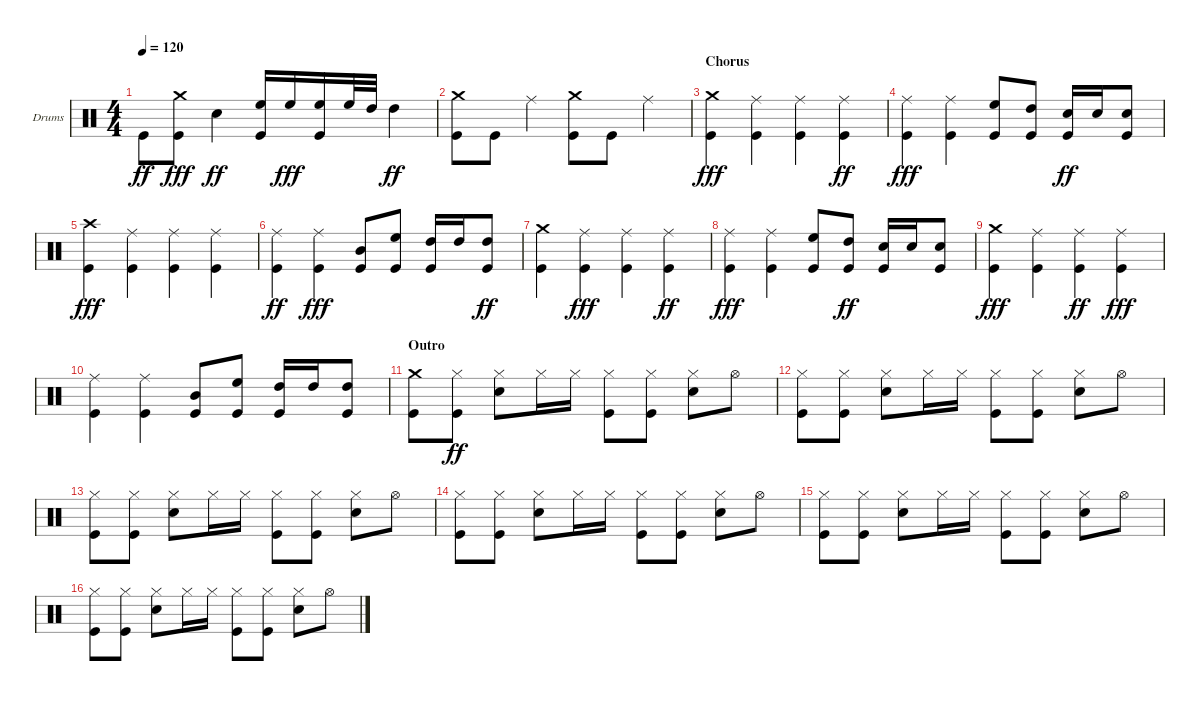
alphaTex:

\defaultSystemsLayout 4
\bracketExtendMode groupsimilarinstruments
\firstSystemTrackNameOrientation horizontal
\otherSystemsTrackNameOrientation horizontal
\track ("Drumkit" "Drums") {instrument percussion}
\staff {score}
\articulation defaults
\ts (4 4)
\tempo 120
\clef neutral
\ks c "Kick (hit)".8{dy ff}
("Crash medium (hit)" "Kick (hit)").8{dy fff} "Snare (hit) 2".4{dy ff} ("High Floor Tom (hit)" "Kick (hit)").16 "High Floor Tom (hit)".16{dy fff} ("High Floor Tom (hit)" "Kick (hit)").16 "High Floor Tom (hit)".32 "High Tom (hit)".32 "High Tom (hit)".4{dy ff} |
("Kick (hit)" "Crash medium (hit)").8 "Kick (hit)".8 "Ride (middle)".4 ("Kick (hit)" "Crash medium (hit)").8 "Kick (hit)".8 "Ride (middle)".4 |
\section ("" "Chorus")
("Crash medium (hit)" "Kick (hit)").4{dy fff} ("Ride (middle)" "Kick (hit)").4 ("Ride (middle)" "Kick (hit)").4 ("Kick (hit)" "Ride (middle)").4{dy ff} |
("Ride (middle)" "Kick (hit)").4{dy fff} ("Ride (middle)" "Kick (hit)").4 ("High Floor Tom (hit)" "Kick (hit)").8 ("High Tom (hit)" "Kick (hit)").8 ("Snare (hit) 2" "Kick (hit)").16{dy ff} "Snare (hit) 2".16 ("Snare (hit) 2" "Kick (hit)").8 |
("Crash high (hit)" "Kick (hit)").4{dy fff} ("Ride (middle)" "Kick (hit)").4 ("Ride (middle)" "Kick (hit)").4 ("Ride (middle)" "Kick (hit)").4 |
("Kick (hit)" "Ride (middle)").4{dy ff} ("Ride (middle)" "Kick (hit)").4{dy fff} ("Mid Tom (hit)" "Kick (hit)").8 ("High Floor Tom (hit)" "Kick (hit)").8 ("High Tom (hit)" "Kick (hit)").16 "High Tom (hit)".16 ("Kick (hit)" "High Tom (hit)").8{dy ff} |
("Kick (hit)" "Crash medium (hit)").4 ("Ride (middle)" "Kick (hit)").4{dy fff} ("Ride (middle)" "Kick (hit)").4 ("Kick (hit)" "Ride (middle)").4{dy ff} |
("Ride (middle)" "Kick (hit)").4{dy fff} ("Ride (middle)" "Kick (hit)").4 ("High Floor Tom (hit)" "Kick (hit)").8 ("Kick (hit)" "High Tom (hit)").8{dy ff} ("Snare (hit) 2" "Kick (hit)").16 "Snare (hit) 2".16 ("Kick (hit)" "Snare (hit) 2").8 |
("Crash medium (hit)" "Kick (hit)").4{dy fff} ("Ride (middle)" "Kick (hit)").4 ("Kick (hit)" "Ride (middle)").4{dy ff} ("Ride (middle)" "Kick (hit)").4{dy fff} |
("Ride (middle)" "Kick (hit)").4 ("Ride (middle)" "Kick (hit)").4 ("Mid Tom (hit)" "Kick (hit)").8 ("High Floor Tom (hit)" "Kick (hit)").8 ("High Tom (hit)" "Kick (hit)").16 "High Tom (hit)".16 ("High Tom (hit)" "Kick (hit)").8 |
\section ("" "Outro")
("Crash medium (hit)" "Kick (hit)").8 ("Kick (hit)" "Hi-Hat (closed)").8{dy ff} ("Hi-Hat (closed)" "Snare (hit) 2").8 "Hi-Hat (closed)".16 "Hi-Hat (closed)".16 ("Kick (hit)" "Hi-Hat (closed)").8 ("Kick (hit)" "Hi-Hat (closed)").8 ("Hi-Hat (closed)" "Snare (hit) 2").8 "Hi-Hat (open)".8 |
("Kick (hit)" "Hi-Hat (closed)").8 ("Kick (hit)" "Hi-Hat (closed)").8 ("Hi-Hat (closed)" "Snare (hit) 2").8 "Hi-Hat (closed)".16 "Hi-Hat (closed)".16 ("Hi-Hat (closed)" "Kick (hit)").8 ("Kick (hit)" "Hi-Hat (closed)").8 ("Snare (hit) 2" "Hi-Hat (closed)").8 "Hi-Hat (open)".8 |
("Hi-Hat (closed)" "Kick (hit)").8 ("Hi-Hat (closed)" "Kick (hit)").8 ("Hi-Hat (closed)" "Snare (hit) 2").8 "Hi-Hat (closed)".16 "Hi-Hat (closed)".16 ("Hi-Hat (closed)" "Kick (hit)").8 ("Hi-Hat (closed)" "Kick (hit)").8 ("Hi-Hat (closed)" "Snare (hit) 2").8 "Hi-Hat (open)".8 |
("Hi-Hat (closed)" "Kick (hit)").8 ("Hi-Hat (closed)" "Kick (hit)").8 ("Hi-Hat (closed)" "Snare (hit) 2").8 "Hi-Hat (closed)".16 "Hi-Hat (closed)".16 ("Hi-Hat (closed)" "Kick (hit)").8 ("Kick (hit)" "Hi-Hat (closed)").8 ("Snare (hit) 2" "Hi-Hat (closed)").8 "Hi-Hat (open)".8 |
("Hi-Hat (closed)" "Kick (hit)").8 ("Hi-Hat (closed)" "Kick (hit)").8 ("Hi-Hat (closed)" "Snare (hit) 2").8 "Hi-Hat (closed)".16 "Hi-Hat (closed)".16 ("Kick (hit)" "Hi-Hat (closed)").8 ("Hi-Hat (closed)" "Kick (hit)").8 ("Hi-Hat (closed)" "Snare (hit) 2").8 "Hi-Hat (open)".8 |
("Hi-Hat (closed)" "Kick (hit)").8 ("Hi-Hat (closed)" "Kick (hit)").8 ("Hi-Hat (closed)" "Snare (hit) 2").8 "Hi-Hat (closed)".16 "Hi-Hat (closed)".16 ("Hi-Hat (closed)" "Kick (hit)").8 ("Hi-Hat (closed)" "Kick (hit)").8 ("Hi-Hat (closed)" "Snare (hit) 2").8 "Hi-Hat (open)".8
